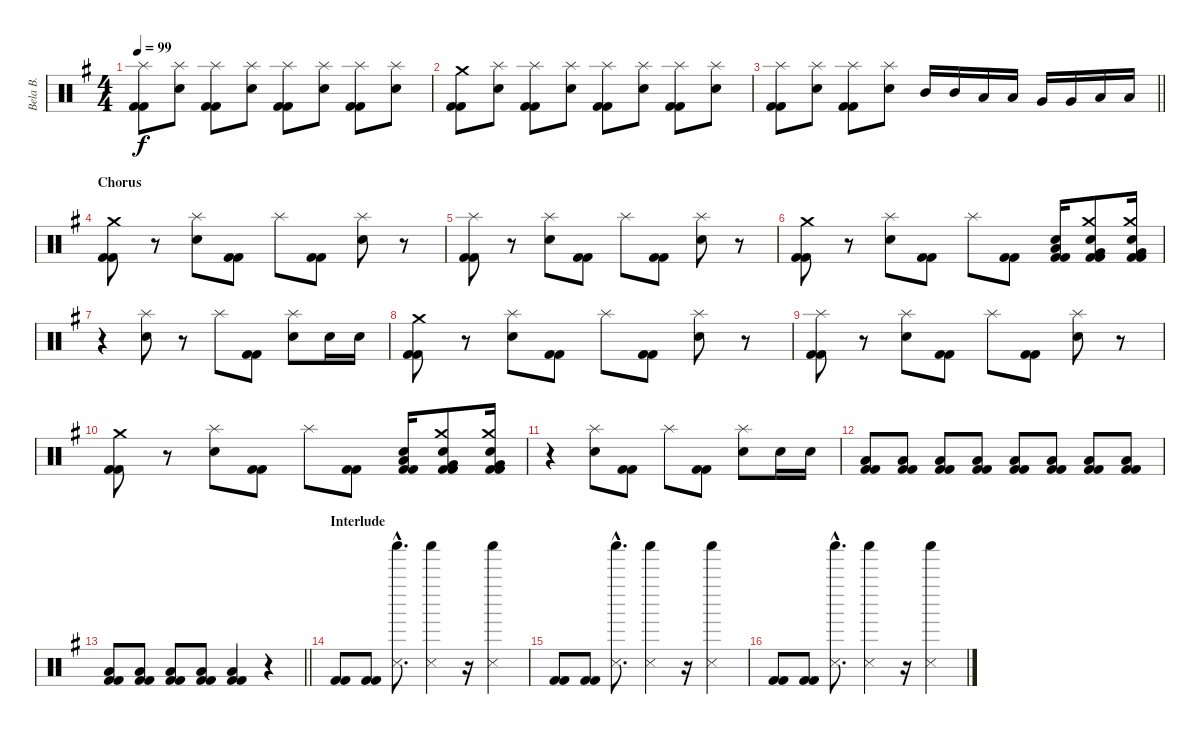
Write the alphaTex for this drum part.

\track ("Bela B." "Bela B.") {instrument percussion}
\staff {score}
\articulation defaults
\ts (4 4)
\tempo 99
\clef neutral
\ks g
("Splash (hit)" "Kick (hit) 2" "Kick (hit) 2").8{dy f} ("Splash (hit)" "Electric Snare (hit)").8 ("Splash (hit)" "Kick (hit) 2" "Kick (hit) 2").8 ("Splash (hit)" "Electric Snare (hit)").8 ("Splash (hit)" "Kick (hit) 2" "Kick (hit) 2").8 ("Splash (hit)" "Electric Snare (hit)").8 ("Splash (hit)" "Kick (hit) 2" "Kick (hit) 2").8 ("Splash (hit)" "Electric Snare (hit)").8 |
("Crash medium (hit)" "Kick (hit) 2" "Kick (hit) 2").8 ("Splash (hit)" "Electric Snare (hit)").8 ("Splash (hit)" "Kick (hit) 2" "Kick (hit) 2").8 ("Splash (hit)" "Electric Snare (hit)").8 ("Splash (hit)" "Kick (hit) 2" "Kick (hit) 2").8 ("Splash (hit)" "Electric Snare (hit)").8 ("Splash (hit)" "Kick (hit) 2" "Kick (hit) 2").8 ("Splash (hit)" "Electric Snare (hit)").8 |
\barLineRight lightlight
("Splash (hit)" "Kick (hit) 2" "Kick (hit) 2").8 ("Splash (hit)" "Electric Snare (hit)").8 ("Splash (hit)" "Kick (hit) 2" "Kick (hit) 2").8 ("Splash (hit)" "Electric Snare (hit)").8 "Mid Tom (hit)".16 "Mid Tom (hit)".16 "Low Tom (hit)".16 "Low Tom (hit)".16 "Very Low Tom (hit)".16 "Very Low Tom (hit)".16 "Low Floor Tom (hit)".16 "Low Floor Tom (hit)".16 |
\section ("" "Chorus")
("Crash medium (hit)" "Kick (hit) 2" "Kick (hit) 2").8 r.8 ("Splash (hit)" "Snare (hit) 2").8 ("Kick (hit) 2" "Kick (hit) 2").8 "Splash (hit)".8 ("Kick (hit) 2" "Kick (hit) 2").8 ("Splash (hit)" "Snare (hit) 2").8 r.8 |
("Splash (hit)" "Kick (hit) 2" "Kick (hit) 2").8 r.8 ("Splash (hit)" "Snare (hit) 2").8 ("Kick (hit) 2" "Kick (hit) 2").8 "Splash (hit)".8 ("Kick (hit) 2" "Kick (hit) 2").8 ("Splash (hit)" "Snare (hit) 2").8 r.8 |
("Crash medium (hit)" "Kick (hit) 2" "Kick (hit) 2").8 r.8 ("Splash (hit)" "Snare (hit) 2").8 ("Kick (hit) 2" "Kick (hit) 2").8 "Splash (hit)".8 ("Kick (hit) 2" "Kick (hit) 2").8 ("Low Floor Tom (hit)" "Electric Snare (hit)" "Kick (hit) 2" "Kick (hit) 2").16 ("Crash medium (hit)" "Very Low Tom (hit)" "Electric Snare (hit)" "Kick (hit) 2" "Kick (hit) 2").8 ("Crash medium (hit)" "Very Low Tom (hit)" "Electric Snare (hit)" "Kick (hit) 2" "Kick (hit) 2").16 |
r.4 ("Splash (hit)" "Snare (hit) 2").8 r.8 "Splash (hit)".8 ("Kick (hit) 2" "Kick (hit) 2").8 ("Splash (hit)" "Snare (hit) 2").8 "Snare (hit) 2".16 "Snare (hit) 2".16 |
("Crash medium (hit)" "Kick (hit) 2" "Kick (hit) 2").8 r.8 ("Splash (hit)" "Snare (hit) 2").8 ("Kick (hit) 2" "Kick (hit) 2").8 "Splash (hit)".8 ("Kick (hit) 2" "Kick (hit) 2").8 ("Splash (hit)" "Snare (hit) 2").8 r.8 |
("Splash (hit)" "Kick (hit) 2" "Kick (hit) 2").8 r.8 ("Splash (hit)" "Snare (hit) 2").8 ("Kick (hit) 2" "Kick (hit) 2").8 "Splash (hit)".8 ("Kick (hit) 2" "Kick (hit) 2").8 ("Splash (hit)" "Snare (hit) 2").8 r.8 |
("Crash medium (hit)" "Kick (hit) 2" "Kick (hit) 2").8 r.8 ("Splash (hit)" "Snare (hit) 2").8 ("Kick (hit) 2" "Kick (hit) 2").8 "Splash (hit)".8 ("Kick (hit) 2" "Kick (hit) 2").8 ("Low Floor Tom (hit)" "Electric Snare (hit)" "Kick (hit) 2" "Kick (hit) 2").16 ("Crash medium (hit)" "Very Low Tom (hit)" "Electric Snare (hit)" "Kick (hit) 2" "Kick (hit) 2").8 ("Crash medium (hit)" "Very Low Tom (hit)" "Electric Snare (hit)" "Kick (hit) 2" "Kick (hit) 2").16 |
r.4 ("Splash (hit)" "Snare (hit) 2").8 ("Kick (hit) 2" "Kick (hit) 2").8 "Splash (hit)".8 ("Kick (hit) 2" "Kick (hit) 2").8 ("Splash (hit)" "Snare (hit) 2").8 "Snare (hit) 2".16 "Snare (hit) 2".16 |
("Low Floor Tom (hit)" "Kick (hit) 2" "Kick (hit) 2").8 ("Low Floor Tom (hit)" "Kick (hit) 2" "Kick (hit) 2").8 ("Low Floor Tom (hit)" "Kick (hit) 2" "Kick (hit) 2").8 ("Low Floor Tom (hit)" "Kick (hit) 2" "Kick (hit) 2").8 ("Low Floor Tom (hit)" "Kick (hit) 2" "Kick (hit) 2").8 ("Low Floor Tom (hit)" "Kick (hit) 2" "Kick (hit) 2").8 ("Low Floor Tom (hit)" "Kick (hit) 2" "Kick (hit) 2").8 ("Low Floor Tom (hit)" "Kick (hit) 2" "Kick (hit) 2").8 |
\barLineRight lightlight
("Low Floor Tom (hit)" "Kick (hit) 2" "Kick (hit) 2").8 ("Low Floor Tom (hit)" "Kick (hit) 2" "Kick (hit) 2").8 ("Low Floor Tom (hit)" "Kick (hit) 2" "Kick (hit) 2").8 ("Low Floor Tom (hit)" "Kick (hit) 2" "Kick (hit) 2").8 ("Low Floor Tom (hit)" "Kick (hit) 2" "Kick (hit) 2").4 r.4 |
\section ("" "Interlude")
("Kick (hit) 2" "Kick (hit) 2").8 ("Kick (hit) 2" "Kick (hit) 2").8 ("Snare (side stick) 3"{hac} "Shaker (hit)"{hac}).8{d} ("Snare (side stick) 3" "Shaker (hit)").4 r.16 ("Snare (side stick) 3" "Shaker (hit)").4 |
("Kick (hit) 2" "Kick (hit) 2").8 ("Kick (hit) 2" "Kick (hit) 2").8 ("Snare (side stick) 3"{hac} "Shaker (hit)"{hac}).8{d} ("Snare (side stick) 3" "Shaker (hit)").4 r.16 ("Snare (side stick) 3" "Shaker (hit)").4 |
("Kick (hit) 2" "Kick (hit) 2").8 ("Kick (hit) 2" "Kick (hit) 2").8 ("Snare (side stick) 3"{hac} "Shaker (hit)"{hac}).8{d} ("Snare (side stick) 3" "Shaker (hit)").4 r.16 ("Snare (side stick) 3" "Shaker (hit)").4
